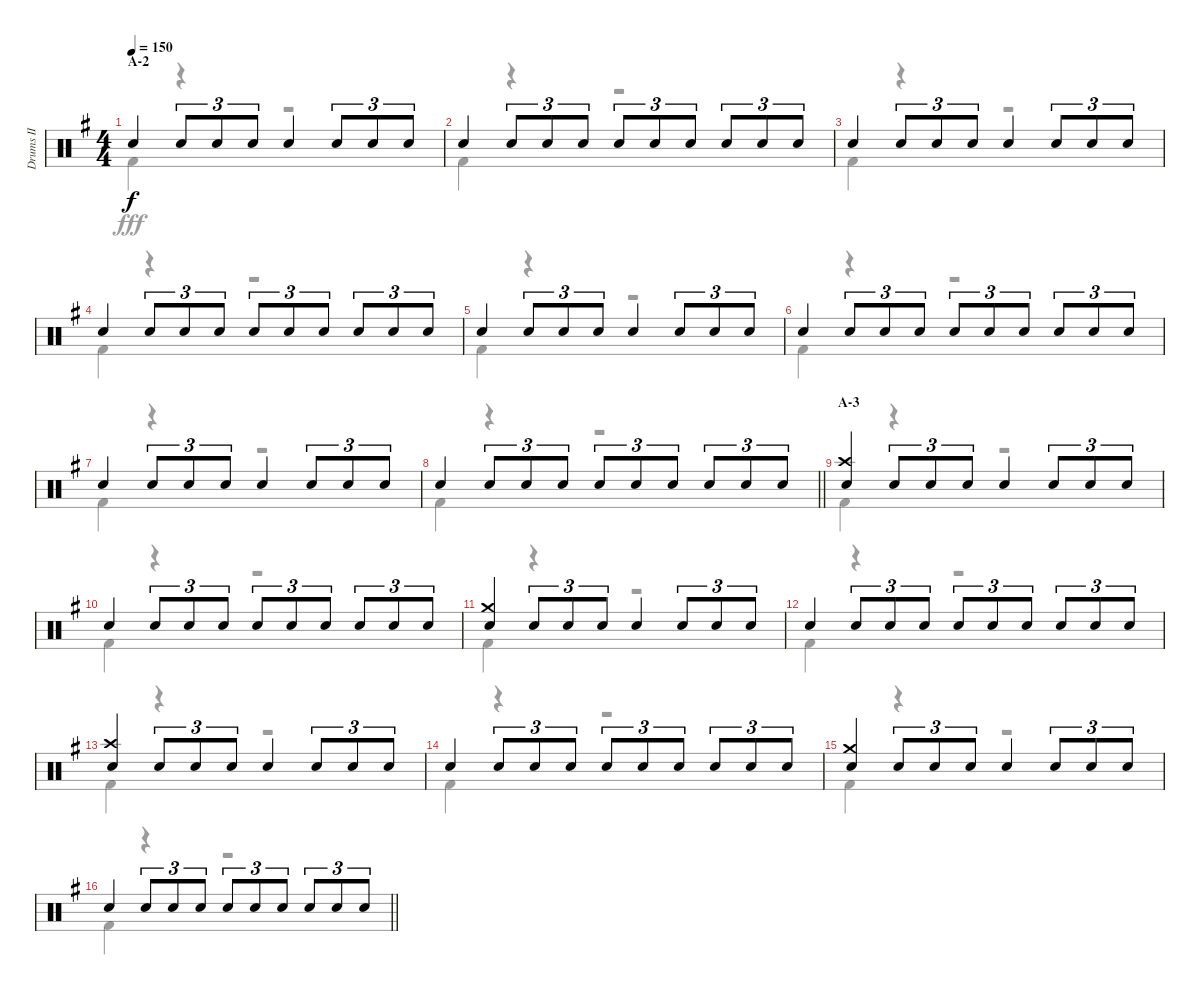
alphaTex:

\track ("Drums II" "Drums II") {instrument percussion}
\staff {score}
\articulation defaults
\voice
\ts (4 4)
\section ("" "A-2")
\tempo 150
\clef neutral
\ks g "Electric Snare (hit)".4{dy f} "Electric Snare (hit)".8{tu (3 2)} "Electric Snare (hit)".8{tu (3 2)} "Electric Snare (hit)".8{tu (3 2)} "Electric Snare (hit)".4 "Electric Snare (hit)".8{tu (3 2)} "Electric Snare (hit)".8{tu (3 2)} "Electric Snare (hit)".8{tu (3 2)}
|
"Electric Snare (hit)".4 "Electric Snare (hit)".8{tu (3 2)} "Electric Snare (hit)".8{tu (3 2)} "Electric Snare (hit)".8{tu (3 2)} "Electric Snare (hit)".8{tu (3 2)} "Electric Snare (hit)".8{tu (3 2)} "Electric Snare (hit)".8{tu (3 2)} "Electric Snare (hit)".8{tu (3 2)} "Electric Snare (hit)".8{tu (3 2)} "Electric Snare (hit)".8{tu (3 2)} |
"Electric Snare (hit)".4 "Electric Snare (hit)".8{tu (3 2)} "Electric Snare (hit)".8{tu (3 2)} "Electric Snare (hit)".8{tu (3 2)} "Electric Snare (hit)".4 "Electric Snare (hit)".8{tu (3 2)} "Electric Snare (hit)".8{tu (3 2)} "Electric Snare (hit)".8{tu (3 2)} |
"Electric Snare (hit)".4 "Electric Snare (hit)".8{tu (3 2)} "Electric Snare (hit)".8{tu (3 2)} "Electric Snare (hit)".8{tu (3 2)} "Electric Snare (hit)".8{tu (3 2)} "Electric Snare (hit)".8{tu (3 2)} "Electric Snare (hit)".8{tu (3 2)} "Electric Snare (hit)".8{tu (3 2)} "Electric Snare (hit)".8{tu (3 2)} "Electric Snare (hit)".8{tu (3 2)} |
"Electric Snare (hit)".4 "Electric Snare (hit)".8{tu (3 2)} "Electric Snare (hit)".8{tu (3 2)} "Electric Snare (hit)".8{tu (3 2)} "Electric Snare (hit)".4 "Electric Snare (hit)".8{tu (3 2)} "Electric Snare (hit)".8{tu (3 2)} "Electric Snare (hit)".8{tu (3 2)} |
"Electric Snare (hit)".4 "Electric Snare (hit)".8{tu (3 2)} "Electric Snare (hit)".8{tu (3 2)} "Electric Snare (hit)".8{tu (3 2)} "Electric Snare (hit)".8{tu (3 2)} "Electric Snare (hit)".8{tu (3 2)} "Electric Snare (hit)".8{tu (3 2)} "Electric Snare (hit)".8{tu (3 2)} "Electric Snare (hit)".8{tu (3 2)} "Electric Snare (hit)".8{tu (3 2)} |
"Electric Snare (hit)".4 "Electric Snare (hit)".8{tu (3 2)} "Electric Snare (hit)".8{tu (3 2)} "Electric Snare (hit)".8{tu (3 2)} "Electric Snare (hit)".4 "Electric Snare (hit)".8{tu (3 2)} "Electric Snare (hit)".8{tu (3 2)} "Electric Snare (hit)".8{tu (3 2)} |
\barLineRight lightlight "Electric Snare (hit)".4 "Electric Snare (hit)".8{tu (3 2)} "Electric Snare (hit)".8{tu (3 2)} "Electric Snare (hit)".8{tu (3 2)} "Electric Snare (hit)".8{tu (3 2)} "Electric Snare (hit)".8{tu (3 2)} "Electric Snare (hit)".8{tu (3 2)} "Electric Snare (hit)".8{tu (3 2)} "Electric Snare (hit)".8{tu (3 2)} "Electric Snare (hit)".8{tu (3 2)}
|
\section ("" "A-3")
("Crash high (hit)" "Electric Snare (hit)").4 "Electric Snare (hit)".8{tu (3 2)} "Electric Snare (hit)".8{tu (3 2)} "Electric Snare (hit)".8{tu (3 2)} "Electric Snare (hit)".4 "Electric Snare (hit)".8{tu (3 2)} "Electric Snare (hit)".8{tu (3 2)} "Electric Snare (hit)".8{tu (3 2)} |
"Electric Snare (hit)".4 "Electric Snare (hit)".8{tu (3 2)} "Electric Snare (hit)".8{tu (3 2)} "Electric Snare (hit)".8{tu (3 2)} "Electric Snare (hit)".8{tu (3 2)} "Electric Snare (hit)".8{tu (3 2)} "Electric Snare (hit)".8{tu (3 2)} "Electric Snare (hit)".8{tu (3 2)} "Electric Snare (hit)".8{tu (3 2)} "Electric Snare (hit)".8{tu (3 2)} |
("Crash medium (hit)" "Electric Snare (hit)").4 "Electric Snare (hit)".8{tu (3 2)} "Electric Snare (hit)".8{tu (3 2)} "Electric Snare (hit)".8{tu (3 2)} "Electric Snare (hit)".4 "Electric Snare (hit)".8{tu (3 2)} "Electric Snare (hit)".8{tu (3 2)} "Electric Snare (hit)".8{tu (3 2)} |
"Electric Snare (hit)".4 "Electric Snare (hit)".8{tu (3 2)} "Electric Snare (hit)".8{tu (3 2)} "Electric Snare (hit)".8{tu (3 2)} "Electric Snare (hit)".8{tu (3 2)} "Electric Snare (hit)".8{tu (3 2)} "Electric Snare (hit)".8{tu (3 2)} "Electric Snare (hit)".8{tu (3 2)} "Electric Snare (hit)".8{tu (3 2)} "Electric Snare (hit)".8{tu (3 2)} |
("Crash high (hit)" "Electric Snare (hit)").4 "Electric Snare (hit)".8{tu (3 2)} "Electric Snare (hit)".8{tu (3 2)} "Electric Snare (hit)".8{tu (3 2)} "Electric Snare (hit)".4 "Electric Snare (hit)".8{tu (3 2)} "Electric Snare (hit)".8{tu (3 2)} "Electric Snare (hit)".8{tu (3 2)} |
"Electric Snare (hit)".4 "Electric Snare (hit)".8{tu (3 2)} "Electric Snare (hit)".8{tu (3 2)} "Electric Snare (hit)".8{tu (3 2)} "Electric Snare (hit)".8{tu (3 2)} "Electric Snare (hit)".8{tu (3 2)} "Electric Snare (hit)".8{tu (3 2)} "Electric Snare (hit)".8{tu (3 2)} "Electric Snare (hit)".8{tu (3 2)} "Electric Snare (hit)".8{tu (3 2)} |
("Crash medium (hit)" "Electric Snare (hit)").4 "Electric Snare (hit)".8{tu (3 2)} "Electric Snare (hit)".8{tu (3 2)} "Electric Snare (hit)".8{tu (3 2)} "Electric Snare (hit)".4 "Electric Snare (hit)".8{tu (3 2)} "Electric Snare (hit)".8{tu (3 2)} "Electric Snare (hit)".8{tu (3 2)} |
\barLineRight lightlight "Electric Snare (hit)".4 "Electric Snare (hit)".8{tu (3 2)} "Electric Snare (hit)".8{tu (3 2)} "Electric Snare (hit)".8{tu (3 2)} "Electric Snare (hit)".8{tu (3 2)} "Electric Snare (hit)".8{tu (3 2)} "Electric Snare (hit)".8{tu (3 2)} "Electric Snare (hit)".8{tu (3 2)} "Electric Snare (hit)".8{tu (3 2)} "Electric Snare (hit)".8{tu (3 2)}
\voice
\clef neutral
\ottava regular
\simile none
\ks g "Kick (hit) 2".4{dy fff}
r.4 r.2 |
"Kick (hit) 2".4 r.4 r.2 |
"Kick (hit) 2".4 r.4 r.2 |
"Kick (hit) 2".4 r.4 r.2 |
"Kick (hit) 2".4 r.4 r.2 |
"Kick (hit) 2".4 r.4 r.2 |
"Kick (hit) 2".4 r.4 r.2 |
\barLineRight lightlight "Kick (hit) 2".4
r.4 r.2 |
"Kick (hit) 2".4 r.4 r.2 |
"Kick (hit) 2".4 r.4 r.2 |
"Kick (hit) 2".4 r.4 r.2 |
"Kick (hit) 2".4 r.4 r.2 |
"Kick (hit) 2".4 r.4 r.2 |
"Kick (hit) 2".4 r.4 r.2 |
"Kick (hit) 2".4 r.4 r.2 |
\barLineRight lightlight "Kick (hit) 2".4
r.4 r.2
